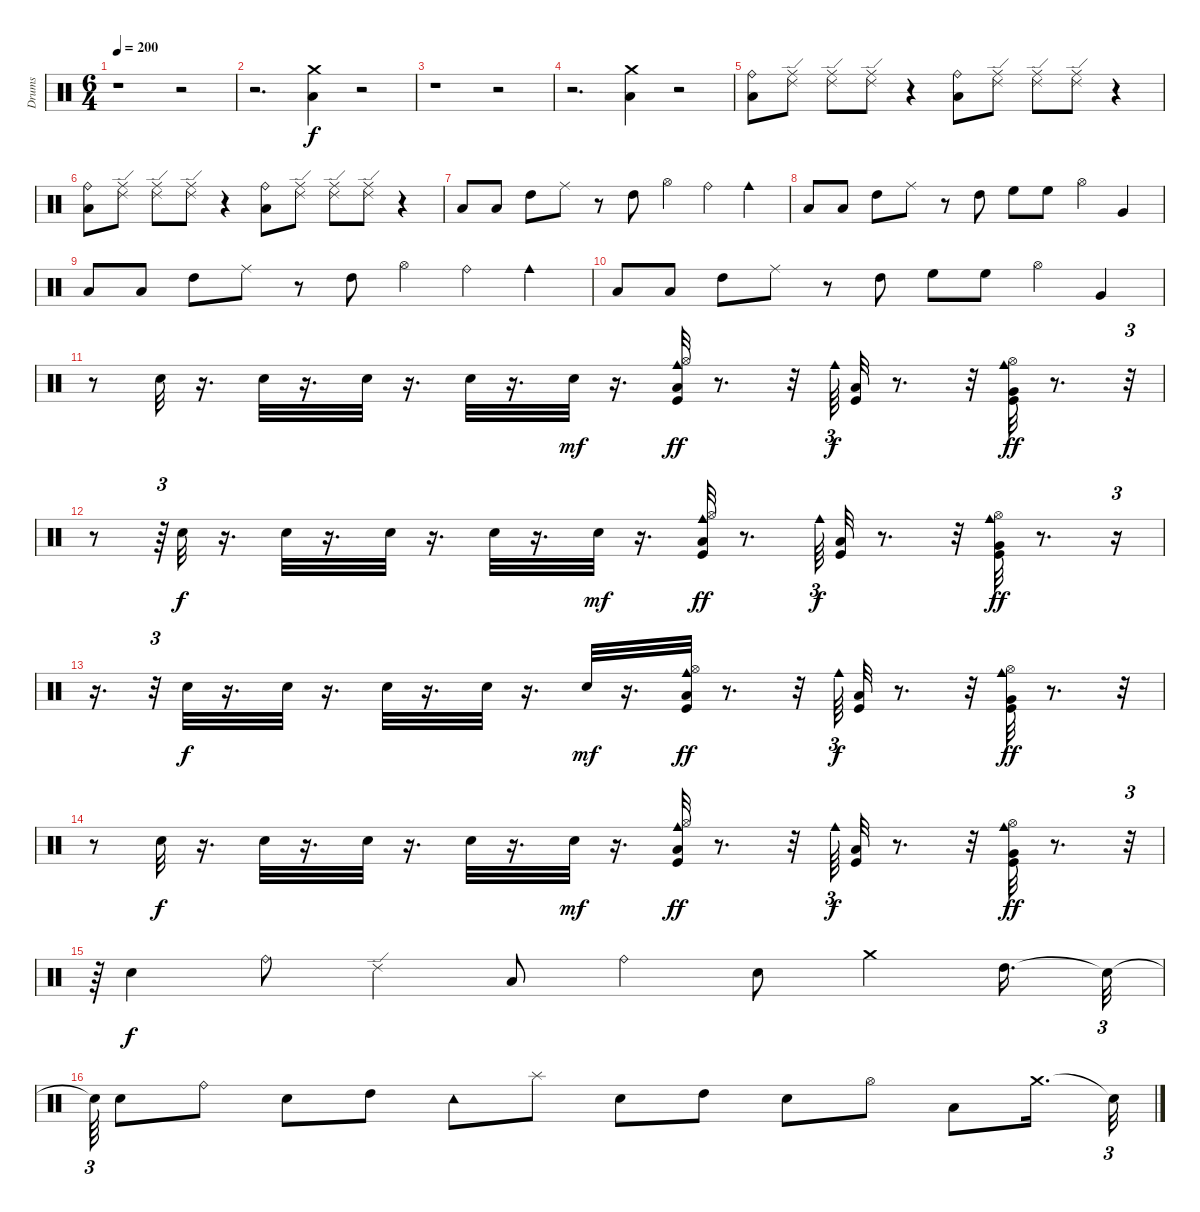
\track ("Drums" "Drums") {instrument percussion}
\staff {score}
\articulation defaults
\ts (6 4)
\tempo 200
\clef neutral
\ks c
r.1{dy f} r.2 |
r.2{d} ("Crash medium (hit)" "Low Floor Tom (hit)").4 r.2 |
r.1 r.2 |
r.2{d} ("Crash medium (hit)" "Low Floor Tom (hit)").4 r.2 |
("Low Floor Tom (hit)" "Ride (bell)").8 ("Ride (middle)" "Ride (edge) 2").8 ("Ride (middle)" "Ride (edge) 2").8 ("Ride (middle)" "Ride (edge) 2").8 r.4 ("Ride (bell)" "Low Floor Tom (hit)").8 ("Ride (middle)" "Ride (edge) 2").8 ("Ride (middle)" "Ride (edge) 2").8 ("Ride (middle)" "Ride (edge) 2").8 r.4 |
("Ride (bell)" "Low Floor Tom (hit)").8 ("Ride (middle)" "Ride (edge) 2").8 ("Ride (middle)" "Ride (edge) 2").8 ("Ride (middle)" "Ride (edge) 2").8 r.4 ("Ride (bell)" "Low Floor Tom (hit)").8 ("Ride (middle)" "Ride (edge) 2").8 ("Ride (middle)" "Ride (edge) 2").8 ("Ride (middle)" "Ride (edge) 2").8 r.4 |
"Low Floor Tom (hit)".8 "Low Floor Tom (hit)".8 "High Tom (hit)".8 "Ride (middle)".8 r.8 "High Tom (hit)".8 "Hi-Hat (open)".4 "Ride (bell)".4 "Cowbell medium (hit)".4 |
"Low Floor Tom (hit)".8 "Low Floor Tom (hit)".8 "High Tom (hit)".8 "Ride (middle)".8 r.8 "High Tom (hit)".8 "High Floor Tom (hit)".8 "High Floor Tom (hit)".8 "Hi-Hat (open)".4 "Very Low Tom (hit)".4 |
"Low Floor Tom (hit)".8 "Low Floor Tom (hit)".8 "High Tom (hit)".8 "Ride (middle)".8 r.8 "High Tom (hit)".8 "Hi-Hat (open)".4 "Ride (bell)".4 "Cowbell medium (hit)".4 |
"Low Floor Tom (hit)".8 "Low Floor Tom (hit)".8 "High Tom (hit)".8 "Ride (middle)".8 r.8 "High Tom (hit)".8 "High Floor Tom (hit)".8 "High Floor Tom (hit)".8 "Hi-Hat (open)".4 "Very Low Tom (hit)".4 |
r.8 "Snare (hit) 2".32 r.16{d} "Snare (hit) 2".32 r.16{d} "Snare (hit) 2".32 r.16{d} "Snare (hit) 2".32 r.16{d} "Snare (hit) 2".32{dy mf} r.16{d} ("Kick (hit)" "Hi-Hat (open)" "Cowbell medium (hit)" "Low Floor Tom (hit)").32{dy ff} r.8{d} r.32 "Cowbell medium (hit)".64{tu (3 2) dy f} ("Kick (hit)" "Low Floor Tom (hit)").32 r.8{d} r.32 ("Hi-Hat (open)" "Kick (hit)" "Cowbell medium (hit)" "Very Low Tom (hit)").32{dy ff} r.8{d} r.32{tu (3 2)} |
r.8 r.64{tu (3 2)} "Snare (hit) 2".32{dy f} r.16{d} "Snare (hit) 2".32 r.16{d} "Snare (hit) 2".32 r.16{d} "Snare (hit) 2".32 r.16{d} "Snare (hit) 2".32{dy mf} r.16{d} ("Kick (hit)" "Hi-Hat (open)" "Cowbell medium (hit)" "Low Floor Tom (hit)").32{dy ff} r.8{d} "Cowbell medium (hit)".64{tu (3 2) dy f} ("Kick (hit)" "Low Floor Tom (hit)").32 r.8{d} r.32 ("Hi-Hat (open)" "Kick (hit)" "Cowbell medium (hit)" "Very Low Tom (hit)").32{dy ff} r.8{d} r.16{tu (3 2)} |
r.16{d} r.32{tu (3 2)} "Snare (hit) 2".32{dy f} r.16{d} "Snare (hit) 2".32 r.16{d} "Snare (hit) 2".32 r.16{d} "Snare (hit) 2".32 r.16{d} "Snare (hit) 2".32{dy mf} r.16{d} ("Kick (hit)" "Hi-Hat (open)" "Cowbell medium (hit)" "Low Floor Tom (hit)").32{dy ff} r.8{d} r.32 "Cowbell medium (hit)".64{tu (3 2) dy f} ("Kick (hit)" "Low Floor Tom (hit)").32 r.8{d} r.32 ("Hi-Hat (open)" "Kick (hit)" "Cowbell medium (hit)" "Very Low Tom (hit)").32{dy ff} r.8{d} r.32 |
r.8 "Snare (hit) 2".32{dy f} r.16{d} "Snare (hit) 2".32 r.16{d} "Snare (hit) 2".32 r.16{d} "Snare (hit) 2".32 r.16{d} "Snare (hit) 2".32{dy mf} r.16{d} ("Kick (hit)" "Hi-Hat (open)" "Cowbell medium (hit)" "Low Floor Tom (hit)").32{dy ff} r.8{d} r.32 "Cowbell medium (hit)".64{tu (3 2) dy f} ("Kick (hit)" "Low Floor Tom (hit)").32 r.8{d} r.32 ("Hi-Hat (open)" "Kick (hit)" "Cowbell medium (hit)" "Very Low Tom (hit)").32{dy ff} r.8{d} r.32{tu (3 2)} |
r.64{tu (3 2)} "Electric Snare (hit)".4{dy f} "Ride (bell)".8 "Ride (edge) 2".4 "Low Tom (hit)".8 "Ride (bell)".4 "Electric Snare (hit)".8 "Crash medium (hit)".4 "High Tom (hit)".16{d} "Snare (hit)"{t}.32{tu (3 2)} |
"Snare (hit)"{t}.64{tu (3 2)} "Snare (hit) 2".8 "Ride (bell)".8 "Snare (hit) 2".8 "High Tom (hit)".8 "Tambourine (hit)".8 "Splash (hit)".8 "Snare (hit) 2".8 "High Tom (hit)".8 "Snare (hit) 2".8 "Hi-Hat (open)".8 "Low Tom (hit)".8 "Crash medium (hit)".16{d} "Snare (hit)"{t}.32{tu (3 2)}
